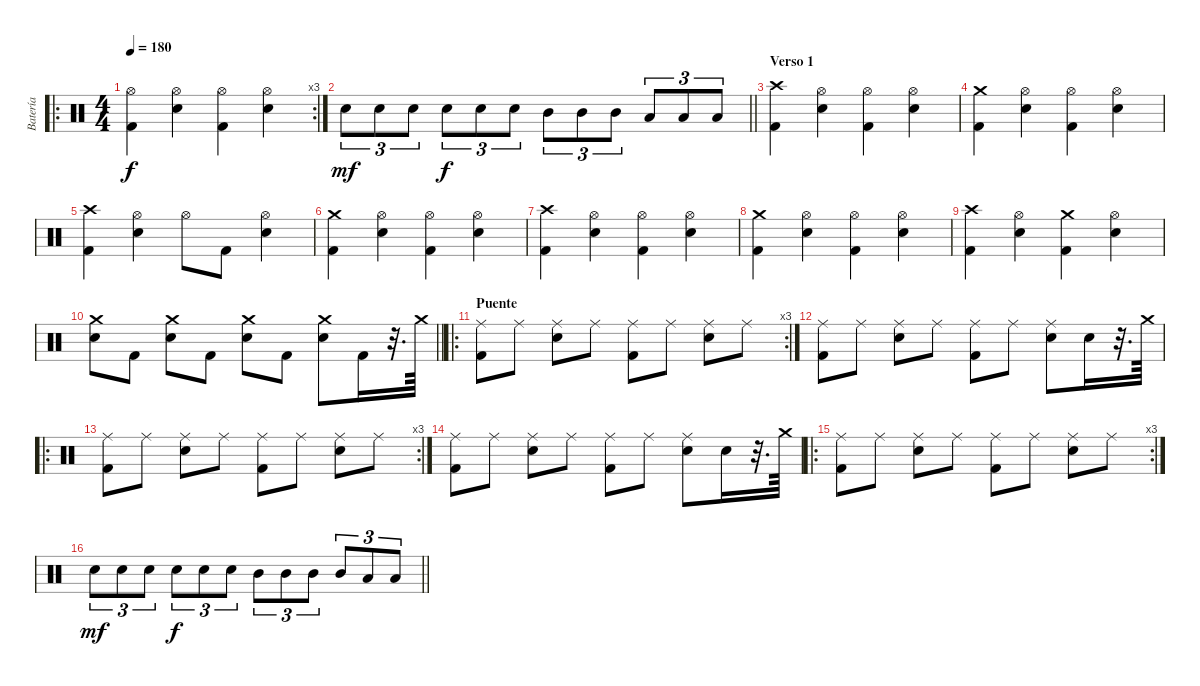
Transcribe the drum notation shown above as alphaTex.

\track ("Batería" "Batería") {instrument percussion}
\staff {score}
\articulation defaults
\ro
\rc 3
\ts (4 4)
\tempo 180
\clef neutral
\ks c
("Hi-Hat (open)" "Kick (hit) 2").4{dy f} ("Hi-Hat (open)" "Snare (hit) 2").4 ("Hi-Hat (open)" "Kick (hit) 2").4 ("Hi-Hat (open)" "Snare (hit) 2").4 |
\barLineRight lightlight "Snare (hit) 2".8{tu (3 2) dy mf} "Snare (hit) 2".8{tu (3 2)} "Snare (hit) 2".8{tu (3 2)} "Snare (hit) 2".8{tu (3 2) dy f} "Snare (hit) 2".8{tu (3 2)} "Snare (hit) 2".8{tu (3 2)} "Mid Tom (hit)".8{tu (3 2)} "Mid Tom (hit)".8{tu (3 2)} "Mid Tom (hit)".8{tu (3 2)} "Low Tom (hit)".8{tu (3 2)} "Low Tom (hit)".8{tu (3 2)} "Low Tom (hit)".8{tu (3 2)}
|
\section ("" "Verso 1")
("Crash high (hit)" "Kick (hit) 2").4 ("Hi-Hat (open)" "Snare (hit) 2").4 ("Hi-Hat (open)" "Kick (hit) 2").4 ("Hi-Hat (open)" "Snare (hit) 2").4 |
("Crash medium (hit)" "Kick (hit) 2").4 ("Hi-Hat (open)" "Snare (hit) 2").4 ("Hi-Hat (open)" "Kick (hit) 2").4 ("Hi-Hat (open)" "Snare (hit) 2").4 |
("Crash high (hit)" "Kick (hit) 2").4 ("Hi-Hat (open)" "Snare (hit) 2").4 "Hi-Hat (open)".8 "Kick (hit) 2".8 ("Hi-Hat (open)" "Snare (hit) 2").4 |
("Crash medium (hit)" "Kick (hit) 2").4 ("Hi-Hat (open)" "Snare (hit) 2").4 ("Hi-Hat (open)" "Kick (hit) 2").4 ("Hi-Hat (open)" "Snare (hit) 2").4 |
("Crash high (hit)" "Kick (hit) 2").4 ("Hi-Hat (open)" "Snare (hit) 2").4 ("Hi-Hat (open)" "Kick (hit) 2").4 ("Hi-Hat (open)" "Snare (hit) 2").4 |
("Crash medium (hit)" "Kick (hit) 2").4 ("Hi-Hat (open)" "Snare (hit) 2").4 ("Hi-Hat (open)" "Kick (hit) 2").4 ("Hi-Hat (open)" "Snare (hit) 2").4 |
("Crash high (hit)" "Kick (hit) 2").4 ("Hi-Hat (open)" "Snare (hit) 2").4 ("Crash medium (hit)" "Kick (hit) 2").4 ("Hi-Hat (open)" "Snare (hit) 2").4 |
\barLineRight lightlight
("Crash medium (hit)" "Snare (hit) 2").8 "Kick (hit) 2".8 ("Crash medium (hit)" "Snare (hit) 2").8 "Kick (hit) 2".8 ("Crash medium (hit)" "Snare (hit) 2").8 "Kick (hit) 2".8 ("Crash medium (hit)" "Snare (hit) 2").8 "Kick (hit) 2".16 r.32{d} "Crash medium (hit)".64 |
\ro
\rc 3
\section ("" "Puente")
("Ride (middle)" "Kick (hit) 2").8 "Ride (middle)".8 ("Ride (middle)" "Snare (hit) 2").8 "Ride (middle)".8 ("Ride (middle)" "Kick (hit) 2").8 "Ride (middle)".8 ("Ride (middle)" "Snare (hit) 2").8 "Ride (middle)".8 |
("Ride (middle)" "Kick (hit) 2").8 "Ride (middle)".8 ("Ride (middle)" "Snare (hit) 2").8 "Ride (middle)".8 ("Ride (middle)" "Kick (hit) 2").8 "Ride (middle)".8 ("Ride (middle)" "Snare (hit) 2").8 "Snare (hit) 2".16 r.32{d} "Crash medium (hit)".64 |
\ro
\rc 3
("Ride (middle)" "Kick (hit) 2").8 "Ride (middle)".8 ("Ride (middle)" "Snare (hit) 2").8 "Ride (middle)".8 ("Ride (middle)" "Kick (hit) 2").8 "Ride (middle)".8 ("Ride (middle)" "Snare (hit) 2").8 "Ride (middle)".8 |
("Ride (middle)" "Kick (hit) 2").8 "Ride (middle)".8 ("Ride (middle)" "Snare (hit) 2").8 "Ride (middle)".8 ("Ride (middle)" "Kick (hit) 2").8 "Ride (middle)".8 ("Ride (middle)" "Snare (hit) 2").8 "Snare (hit) 2".16 r.32{d} "Crash medium (hit)".64 |
\ro
\rc 3
("Ride (middle)" "Kick (hit) 2").8 "Ride (middle)".8 ("Ride (middle)" "Snare (hit) 2").8 "Ride (middle)".8 ("Ride (middle)" "Kick (hit) 2").8 "Ride (middle)".8 ("Ride (middle)" "Snare (hit) 2").8 "Ride (middle)".8 |
\barLineRight lightlight "Snare (hit) 2".8{tu (3 2) dy mf} "Snare (hit) 2".8{tu (3 2)} "Snare (hit) 2".8{tu (3 2)} "Snare (hit) 2".8{tu (3 2) dy f} "Snare (hit) 2".8{tu (3 2)} "Snare (hit) 2".8{tu (3 2)} "Mid Tom (hit)".8{tu (3 2)} "Mid Tom (hit)".8{tu (3 2)} "Mid Tom (hit)".8{tu (3 2)} "Mid Tom (hit)".8{tu (3 2)} "Low Tom (hit)".8{tu (3 2)} "Low Tom (hit)".8{tu (3 2)}
